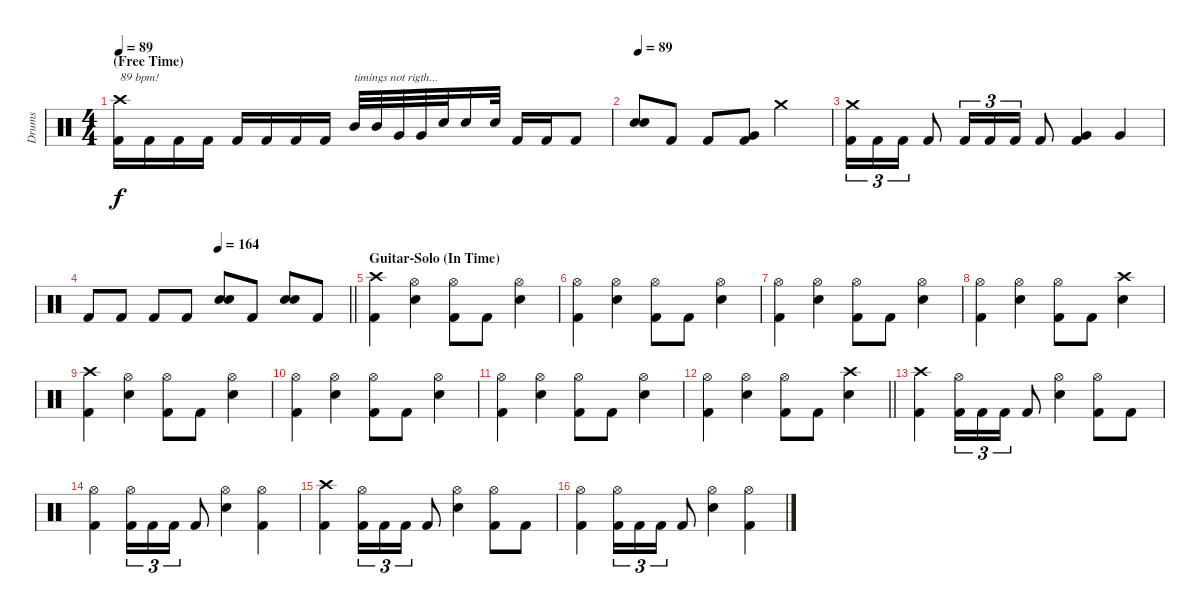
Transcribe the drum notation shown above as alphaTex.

\track ("Drums" "Drums") {instrument percussion}
\staff {score}
\articulation defaults
\ts (4 4)
\section ("" "(Free Time)")
\tempo 89
\clef neutral
\ks c
("Crash high (hit)" "Kick (hit) 2").16{txt "89 bpm!" dy f} "Kick (hit) 2".16 "Kick (hit) 2".16 "Kick (hit) 2".16 "Kick (hit) 2".16 "Kick (hit) 2".16 "Kick (hit) 2".16 "Kick (hit) 2".16 "Mid Tom (hit)".32{txt "timings not rigth..."} "Mid Tom (hit)".32 "Very Low Tom (hit)".32 "Very Low Tom (hit)".32 "Snare (hit) 2".32 "Snare (hit) 2".16 "Snare (hit) 2".32 "Kick (hit) 2".16 "Kick (hit) 2".16 "Kick (hit) 2".8 |
\tempo 89
("Snare (hit) 2" "Snare (hit) 2").8{bd 60} "Kick (hit) 2".8 "Kick (hit) 2".8 ("Very Low Tom (hit)" "Kick (hit) 2").8 "Crash medium (hit)".2 |
("Crash medium (hit)" "Kick (hit) 2").16{tu (3 2)} "Kick (hit) 2".16{tu (3 2)} "Kick (hit) 2".16{tu (3 2)} "Kick (hit) 2".8 "Kick (hit) 2".16{tu (3 2)} "Kick (hit) 2".16{tu (3 2)} "Kick (hit) 2".16{tu (3 2)} "Kick (hit) 2".8 ("Very Low Tom (hit)" "Kick (hit) 2").4 "Very Low Tom (hit)".4 |
\tempo (164 0.5)
\barLineRight lightlight "Kick (hit) 2".8 "Kick (hit) 2".8 "Kick (hit) 2".8 "Kick (hit) 2".8
("Snare (hit) 2" "Snare (hit) 2").8{bd 60} "Kick (hit) 2".8 ("Snare (hit) 2" "Snare (hit) 2").8{bd 60} "Kick (hit) 2".8 |
\section ("" "Guitar-Solo (In Time)")
("Crash high (hit)" "Kick (hit) 2").4 ("Hi-Hat (open)" "Snare (hit) 2").4 ("Hi-Hat (open)" "Kick (hit) 2").8 "Kick (hit) 2".8 ("Hi-Hat (open)" "Snare (hit) 2").4 |
("Hi-Hat (open)" "Kick (hit) 2").4 ("Hi-Hat (open)" "Snare (hit) 2").4 ("Hi-Hat (open)" "Kick (hit) 2").8 "Kick (hit) 2".8 ("Hi-Hat (open)" "Snare (hit) 2").4 |
("Hi-Hat (open)" "Kick (hit) 2").4 ("Hi-Hat (open)" "Snare (hit) 2").4 ("Hi-Hat (open)" "Kick (hit) 2").8 "Kick (hit) 2".8 ("Hi-Hat (open)" "Snare (hit) 2").4 |
("Hi-Hat (open)" "Kick (hit) 2").4 ("Hi-Hat (open)" "Snare (hit) 2").4 ("Hi-Hat (open)" "Kick (hit) 2").8 "Kick (hit) 2".8 ("Crash high (hit)" "Snare (hit) 2").4 |
("Crash high (hit)" "Kick (hit) 2").4 ("Hi-Hat (open)" "Snare (hit) 2").4 ("Hi-Hat (open)" "Kick (hit) 2").8 "Kick (hit) 2".8 ("Hi-Hat (open)" "Snare (hit) 2").4 |
("Hi-Hat (open)" "Kick (hit) 2").4 ("Hi-Hat (open)" "Snare (hit) 2").4 ("Hi-Hat (open)" "Kick (hit) 2").8 "Kick (hit) 2".8 ("Hi-Hat (open)" "Snare (hit) 2").4 |
("Hi-Hat (open)" "Kick (hit) 2").4 ("Hi-Hat (open)" "Snare (hit) 2").4 ("Hi-Hat (open)" "Kick (hit) 2").8 "Kick (hit) 2".8 ("Hi-Hat (open)" "Snare (hit) 2").4 |
\barLineRight lightlight
("Hi-Hat (open)" "Kick (hit) 2").4 ("Hi-Hat (open)" "Snare (hit) 2").4 ("Hi-Hat (open)" "Kick (hit) 2").8 "Kick (hit) 2".8 ("Crash high (hit)" "Snare (hit) 2").4 |
("Crash high (hit)" "Kick (hit) 2").4 ("Hi-Hat (open)" "Kick (hit) 2").16{tu (3 2)} "Kick (hit) 2".16{tu (3 2)} "Kick (hit) 2".16{tu (3 2)} "Kick (hit) 2".8 ("Hi-Hat (open)" "Snare (hit) 2").4 ("Hi-Hat (open)" "Kick (hit) 2").8 "Kick (hit) 2".8 |
("Hi-Hat (open)" "Kick (hit) 2").4 ("Hi-Hat (open)" "Kick (hit) 2").16{tu (3 2)} "Kick (hit) 2".16{tu (3 2)} "Kick (hit) 2".16{tu (3 2)} "Kick (hit) 2".8 ("Hi-Hat (open)" "Snare (hit) 2").4 ("Hi-Hat (open)" "Kick (hit) 2").4 |
("Crash high (hit)" "Kick (hit) 2").4 ("Hi-Hat (open)" "Kick (hit) 2").16{tu (3 2)} "Kick (hit) 2".16{tu (3 2)} "Kick (hit) 2".16{tu (3 2)} "Kick (hit) 2".8 ("Hi-Hat (open)" "Snare (hit) 2").4 ("Hi-Hat (open)" "Kick (hit) 2").8 "Kick (hit) 2".8 |
("Hi-Hat (open)" "Kick (hit) 2").4 ("Hi-Hat (open)" "Kick (hit) 2").16{tu (3 2)} "Kick (hit) 2".16{tu (3 2)} "Kick (hit) 2".16{tu (3 2)} "Kick (hit) 2".8 ("Hi-Hat (open)" "Snare (hit) 2").4 ("Hi-Hat (open)" "Kick (hit) 2").4
